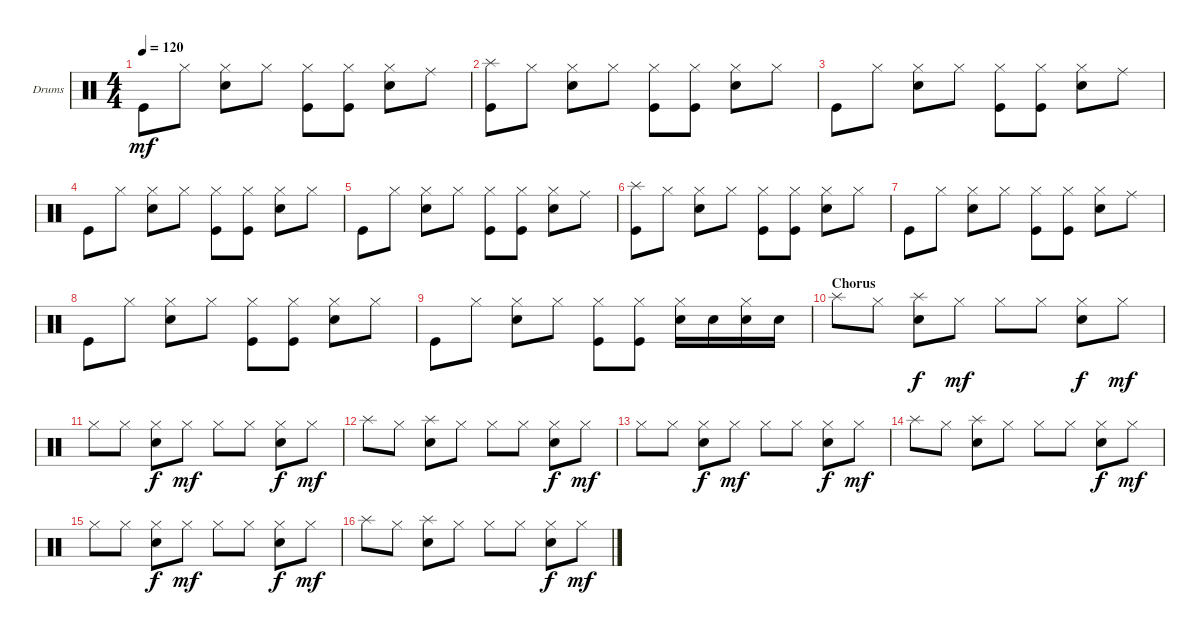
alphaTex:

\bracketExtendMode groupsimilarinstruments
\firstSystemTrackNameOrientation horizontal
\otherSystemsTrackNameOrientation horizontal
\track ("Drumkit" "Drums") {instrument percussion}
\staff {score}
\articulation defaults
\ts (4 4)
\tempo 120
\clef neutral
\ks c "Kick (hit)".8{dy mf} "Hi-Hat (closed)".8
("Snare (hit) 2" "Hi-Hat (closed)").8 "Hi-Hat (closed)".8 ("Kick (hit)" "Hi-Hat (closed)").8 ("Kick (hit)" "Hi-Hat (closed)").8 ("Snare (hit) 2" "Hi-Hat (closed)").8 "Ride (middle)".8 |
("Kick (hit)" "Splash (hit)").8 "Hi-Hat (closed)".8 ("Snare (hit) 2" "Hi-Hat (closed)").8 "Hi-Hat (closed)".8 ("Kick (hit)" "Hi-Hat (closed)").8 ("Kick (hit)" "Hi-Hat (closed)").8 ("Snare (hit) 2" "Hi-Hat (closed)").8 "Hi-Hat (closed)".8 |
"Kick (hit)".8 "Hi-Hat (closed)".8 ("Snare (hit) 2" "Hi-Hat (closed)").8 "Hi-Hat (closed)".8 ("Kick (hit)" "Hi-Hat (closed)").8 ("Kick (hit)" "Hi-Hat (closed)").8 ("Snare (hit) 2" "Hi-Hat (closed)").8 "Ride (middle)".8 |
"Kick (hit)".8 "Hi-Hat (closed)".8 ("Snare (hit) 2" "Hi-Hat (closed)").8 "Hi-Hat (closed)".8 ("Kick (hit)" "Hi-Hat (closed)").8 ("Kick (hit)" "Hi-Hat (closed)").8 ("Snare (hit) 2" "Hi-Hat (closed)").8 "Hi-Hat (closed)".8 |
"Kick (hit)".8 "Hi-Hat (closed)".8 ("Snare (hit) 2" "Hi-Hat (closed)").8 "Hi-Hat (closed)".8 ("Kick (hit)" "Hi-Hat (closed)").8 ("Kick (hit)" "Hi-Hat (closed)").8 ("Snare (hit) 2" "Hi-Hat (closed)").8 "Ride (middle)".8 |
("Kick (hit)" "Splash (hit)").8 "Hi-Hat (closed)".8 ("Snare (hit) 2" "Hi-Hat (closed)").8 "Hi-Hat (closed)".8 ("Kick (hit)" "Hi-Hat (closed)").8 ("Kick (hit)" "Hi-Hat (closed)").8 ("Snare (hit) 2" "Hi-Hat (closed)").8 "Hi-Hat (closed)".8 |
"Kick (hit)".8 "Hi-Hat (closed)".8 ("Snare (hit) 2" "Hi-Hat (closed)").8 "Hi-Hat (closed)".8 ("Kick (hit)" "Hi-Hat (closed)").8 ("Kick (hit)" "Hi-Hat (closed)").8 ("Snare (hit) 2" "Hi-Hat (closed)").8 "Ride (middle)".8 |
"Kick (hit)".8 "Hi-Hat (closed)".8 ("Snare (hit) 2" "Hi-Hat (closed)").8 "Hi-Hat (closed)".8 ("Kick (hit)" "Hi-Hat (closed)").8 ("Kick (hit)" "Hi-Hat (closed)").8 ("Snare (hit) 2" "Hi-Hat (closed)").8 "Hi-Hat (closed)".8 |
"Kick (hit)".8 "Hi-Hat (closed)".8 ("Snare (hit) 2" "Hi-Hat (closed)").8 "Hi-Hat (closed)".8 ("Kick (hit)" "Hi-Hat (closed)").8 ("Kick (hit)" "Hi-Hat (closed)").8 ("Snare (hit) 2" "Hi-Hat (closed)").16 "Snare (hit) 2".16 ("Snare (hit) 2" "Hi-Hat (closed)").16 "Snare (hit) 2".16 |
\section ("" "Chorus")
"Splash (hit)".8 "Hi-Hat (closed)".8 ("Snare (hit) 2" "Splash (hit)").8{dy f} "Hi-Hat (closed)".8{dy mf} "Hi-Hat (closed)".8 "Hi-Hat (closed)".8 ("Hi-Hat (closed)" "Snare (hit) 2").8{dy f} "Hi-Hat (closed)".8{dy mf} |
"Hi-Hat (closed)".8 "Hi-Hat (closed)".8 ("Hi-Hat (closed)" "Snare (hit) 2").8{dy f} "Hi-Hat (closed)".8{dy mf} "Hi-Hat (closed)".8 "Hi-Hat (closed)".8 ("Hi-Hat (closed)" "Snare (hit) 2").8{dy f} "Hi-Hat (closed)".8{dy mf} |
"Splash (hit)".8 "Hi-Hat (closed)".8 ("Snare (hit) 2" "Splash (hit)").8 "Hi-Hat (closed)".8 "Hi-Hat (closed)".8 "Hi-Hat (closed)".8 ("Hi-Hat (closed)" "Snare (hit) 2").8{dy f} "Hi-Hat (closed)".8{dy mf} |
"Hi-Hat (closed)".8 "Hi-Hat (closed)".8 ("Hi-Hat (closed)" "Snare (hit) 2").8{dy f} "Hi-Hat (closed)".8{dy mf} "Hi-Hat (closed)".8 "Hi-Hat (closed)".8 ("Hi-Hat (closed)" "Snare (hit) 2").8{dy f} "Hi-Hat (closed)".8{dy mf} |
"Splash (hit)".8 "Hi-Hat (closed)".8 ("Snare (hit) 2" "Splash (hit)").8 "Hi-Hat (closed)".8 "Hi-Hat (closed)".8 "Hi-Hat (closed)".8 ("Hi-Hat (closed)" "Snare (hit) 2").8{dy f} "Hi-Hat (closed)".8{dy mf} |
"Hi-Hat (closed)".8 "Hi-Hat (closed)".8 ("Hi-Hat (closed)" "Snare (hit) 2").8{dy f} "Hi-Hat (closed)".8{dy mf} "Hi-Hat (closed)".8 "Hi-Hat (closed)".8 ("Hi-Hat (closed)" "Snare (hit) 2").8{dy f} "Hi-Hat (closed)".8{dy mf} |
"Splash (hit)".8 "Hi-Hat (closed)".8 ("Snare (hit) 2" "Splash (hit)").8 "Hi-Hat (closed)".8 "Hi-Hat (closed)".8 "Hi-Hat (closed)".8 ("Hi-Hat (closed)" "Snare (hit) 2").8{dy f} "Hi-Hat (closed)".8{dy mf}
